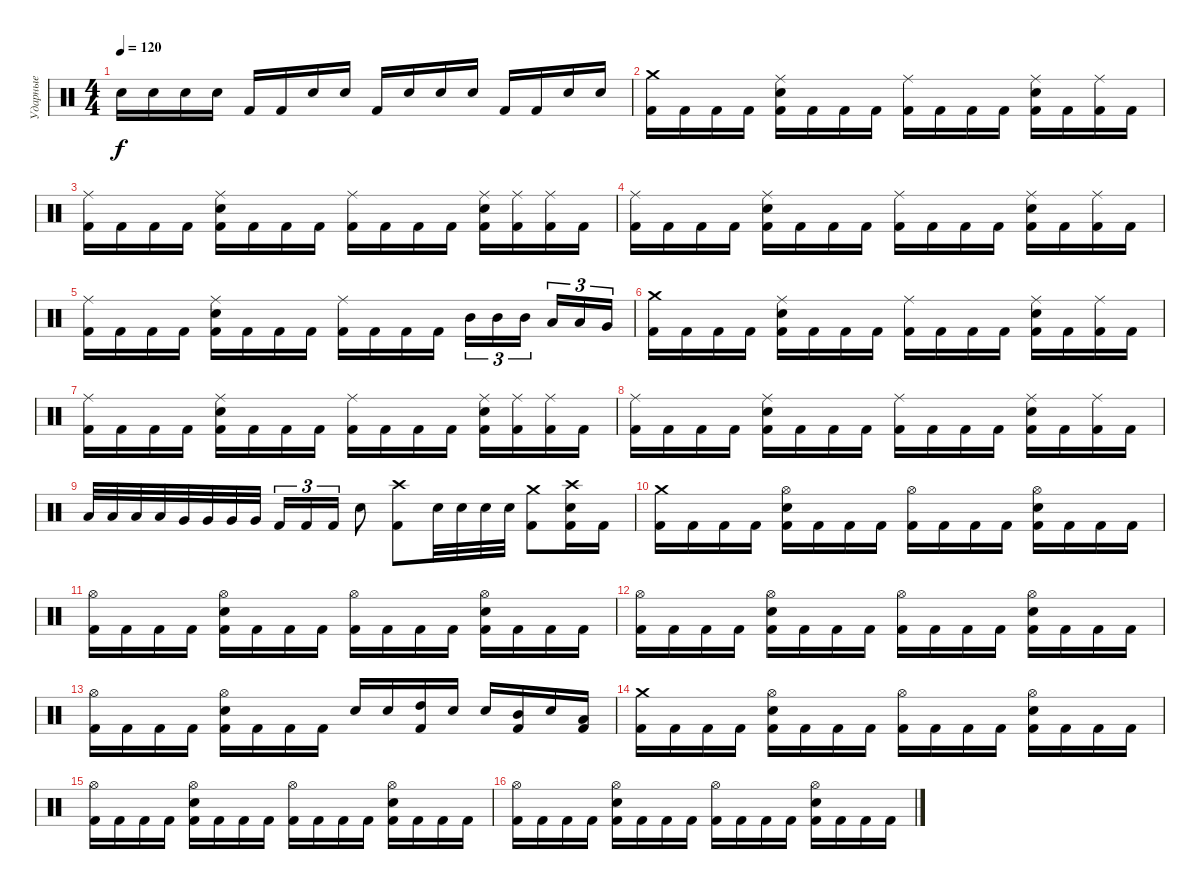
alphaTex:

\track ("Ударные" "Ударные") {instrument percussion}
\staff {score}
\articulation defaults
\ts (4 4)
\tempo 120
\clef neutral
\ks c "Electric Snare (hit)".16{dy f} "Electric Snare (hit)".16 "Electric Snare (hit)".16 "Electric Snare (hit)".16 "Kick (hit) 2".16 "Kick (hit) 2".16 "Electric Snare (hit)".16 "Electric Snare (hit)".16 "Kick (hit) 2".16 "Electric Snare (hit)".16 "Electric Snare (hit)".16 "Electric Snare (hit)".16 "Kick (hit) 2".16 "Kick (hit) 2".16 "Electric Snare (hit)".16 "Electric Snare (hit)".16
|
("Crash medium (hit)" "Kick (hit) 2").16 "Kick (hit) 2".16 "Kick (hit) 2".16 "Kick (hit) 2".16 ("Ride (middle)" "Electric Snare (hit)" "Kick (hit) 2").16 "Kick (hit) 2".16 "Kick (hit) 2".16 "Kick (hit) 2".16 ("Ride (middle)" "Kick (hit) 2").16 "Kick (hit) 2".16 "Kick (hit) 2".16 "Kick (hit) 2".16 ("Ride (middle)" "Electric Snare (hit)" "Kick (hit) 2").16 "Kick (hit) 2".16 ("Ride (middle)" "Kick (hit) 2").16 "Kick (hit) 2".16 |
("Ride (middle)" "Kick (hit) 2").16 "Kick (hit) 2".16 "Kick (hit) 2".16 "Kick (hit) 2".16 ("Ride (middle)" "Electric Snare (hit)" "Kick (hit) 2").16 "Kick (hit) 2".16 "Kick (hit) 2".16 "Kick (hit) 2".16 ("Ride (middle)" "Kick (hit) 2").16 "Kick (hit) 2".16 "Kick (hit) 2".16 "Kick (hit) 2".16 ("Ride (middle)" "Electric Snare (hit)" "Kick (hit) 2").16 ("Ride (middle)" "Kick (hit) 2").16 ("Ride (middle)" "Kick (hit) 2").16 "Kick (hit) 2".16 |
("Ride (middle)" "Kick (hit) 2").16 "Kick (hit) 2".16 "Kick (hit) 2".16 "Kick (hit) 2".16 ("Ride (middle)" "Electric Snare (hit)" "Kick (hit) 2").16 "Kick (hit) 2".16 "Kick (hit) 2".16 "Kick (hit) 2".16 ("Ride (middle)" "Kick (hit) 2").16 "Kick (hit) 2".16 "Kick (hit) 2".16 "Kick (hit) 2".16 ("Ride (middle)" "Electric Snare (hit)" "Kick (hit) 2").16 "Kick (hit) 2".16 ("Ride (middle)" "Kick (hit) 2").16 "Kick (hit) 2".16 |
("Ride (middle)" "Kick (hit) 2").16 "Kick (hit) 2".16 "Kick (hit) 2".16 "Kick (hit) 2".16 ("Ride (middle)" "Electric Snare (hit)" "Kick (hit) 2").16 "Kick (hit) 2".16 "Kick (hit) 2".16 "Kick (hit) 2".16 ("Ride (middle)" "Kick (hit) 2").16 "Kick (hit) 2".16 "Kick (hit) 2".16 "Kick (hit) 2".16 "Mid Tom (hit)".16{tu (3 2)} "Mid Tom (hit)".16{tu (3 2)} "Mid Tom (hit)".16{tu (3 2) beam splitsecondary} "Low Tom (hit)".16{tu (3 2)} "Low Tom (hit)".16{tu (3 2)} "Very Low Tom (hit)".16{tu (3 2)} |
("Crash medium (hit)" "Kick (hit) 2").16 "Kick (hit) 2".16 "Kick (hit) 2".16 "Kick (hit) 2".16 ("Ride (middle)" "Electric Snare (hit)" "Kick (hit) 2").16 "Kick (hit) 2".16 "Kick (hit) 2".16 "Kick (hit) 2".16 ("Ride (middle)" "Kick (hit) 2").16 "Kick (hit) 2".16 "Kick (hit) 2".16 "Kick (hit) 2".16 ("Ride (middle)" "Electric Snare (hit)" "Kick (hit) 2").16 "Kick (hit) 2".16 ("Ride (middle)" "Kick (hit) 2").16 "Kick (hit) 2".16 |
("Ride (middle)" "Kick (hit) 2").16 "Kick (hit) 2".16 "Kick (hit) 2".16 "Kick (hit) 2".16 ("Ride (middle)" "Electric Snare (hit)" "Kick (hit) 2").16 "Kick (hit) 2".16 "Kick (hit) 2".16 "Kick (hit) 2".16 ("Ride (middle)" "Kick (hit) 2").16 "Kick (hit) 2".16 "Kick (hit) 2".16 "Kick (hit) 2".16 ("Ride (middle)" "Electric Snare (hit)" "Kick (hit) 2").16 ("Ride (middle)" "Kick (hit) 2").16 ("Ride (middle)" "Kick (hit) 2").16 "Kick (hit) 2".16 |
("Ride (middle)" "Kick (hit) 2").16 "Kick (hit) 2".16 "Kick (hit) 2".16 "Kick (hit) 2".16 ("Ride (middle)" "Electric Snare (hit)" "Kick (hit) 2").16 "Kick (hit) 2".16 "Kick (hit) 2".16 "Kick (hit) 2".16 ("Ride (middle)" "Kick (hit) 2").16 "Kick (hit) 2".16 "Kick (hit) 2".16 "Kick (hit) 2".16 ("Ride (middle)" "Electric Snare (hit)" "Kick (hit) 2").16 "Kick (hit) 2".16 ("Ride (middle)" "Kick (hit) 2").16 "Kick (hit) 2".16 |
"Low Tom (hit)".32 "Low Tom (hit)".32 "Low Tom (hit)".32 "Low Tom (hit)".32 "Very Low Tom (hit)".32 "Very Low Tom (hit)".32 "Very Low Tom (hit)".32 "Very Low Tom (hit)".32 "Kick (hit) 2".16{tu (3 2)} "Kick (hit) 2".16{tu (3 2)} "Kick (hit) 2".16{tu (3 2)} "Electric Snare (hit)".8 ("Kick (hit) 2" "Crash high (hit)").8 "Electric Snare (hit)".32 "Electric Snare (hit)".32 "Electric Snare (hit)".32 "Electric Snare (hit)".32 ("Kick (hit) 2" "Crash medium (hit)").8 ("Kick (hit) 2" "Electric Snare (hit)" "Crash high (hit)").16 "Kick (hit) 2".16 |
("Crash medium (hit)" "Kick (hit) 2").16 "Kick (hit) 2".16 "Kick (hit) 2".16 "Kick (hit) 2".16 ("Hi-Hat (open)" "Electric Snare (hit)" "Kick (hit) 2").16 "Kick (hit) 2".16 "Kick (hit) 2".16 "Kick (hit) 2".16 ("Hi-Hat (open)" "Kick (hit) 2").16 "Kick (hit) 2".16 "Kick (hit) 2".16 "Kick (hit) 2".16 ("Hi-Hat (open)" "Electric Snare (hit)" "Kick (hit) 2").16 "Kick (hit) 2".16 "Kick (hit) 2".16 "Kick (hit) 2".16 |
("Hi-Hat (open)" "Kick (hit) 2").16 "Kick (hit) 2".16 "Kick (hit) 2".16 "Kick (hit) 2".16 ("Hi-Hat (open)" "Electric Snare (hit)" "Kick (hit) 2").16 "Kick (hit) 2".16 "Kick (hit) 2".16 "Kick (hit) 2".16 ("Hi-Hat (open)" "Kick (hit) 2").16 "Kick (hit) 2".16 "Kick (hit) 2".16 "Kick (hit) 2".16 ("Hi-Hat (open)" "Electric Snare (hit)" "Kick (hit) 2").16 "Kick (hit) 2".16 "Kick (hit) 2".16 "Kick (hit) 2".16 |
("Hi-Hat (open)" "Kick (hit) 2").16 "Kick (hit) 2".16 "Kick (hit) 2".16 "Kick (hit) 2".16 ("Hi-Hat (open)" "Electric Snare (hit)" "Kick (hit) 2").16 "Kick (hit) 2".16 "Kick (hit) 2".16 "Kick (hit) 2".16 ("Hi-Hat (open)" "Kick (hit) 2").16 "Kick (hit) 2".16 "Kick (hit) 2".16 "Kick (hit) 2".16 ("Hi-Hat (open)" "Electric Snare (hit)" "Kick (hit) 2").16 "Kick (hit) 2".16 "Kick (hit) 2".16 "Kick (hit) 2".16 |
("Hi-Hat (open)" "Kick (hit) 2").16 "Kick (hit) 2".16 "Kick (hit) 2".16 "Kick (hit) 2".16 ("Hi-Hat (open)" "Electric Snare (hit)" "Kick (hit) 2").16 "Kick (hit) 2".16 "Kick (hit) 2".16 "Kick (hit) 2".16 "Electric Snare (hit)".16 "Electric Snare (hit)".16 ("High Tom (hit)" "Kick (hit) 2").16 "Electric Snare (hit)".16 "Electric Snare (hit)".16 ("Mid Tom (hit)" "Kick (hit) 2").16 "Electric Snare (hit)".16 ("Low Tom (hit)" "Kick (hit) 2").16 |
("Crash medium (hit)" "Kick (hit) 2").16 "Kick (hit) 2".16 "Kick (hit) 2".16 "Kick (hit) 2".16 ("Hi-Hat (open)" "Electric Snare (hit)" "Kick (hit) 2").16 "Kick (hit) 2".16 "Kick (hit) 2".16 "Kick (hit) 2".16 ("Hi-Hat (open)" "Kick (hit) 2").16 "Kick (hit) 2".16 "Kick (hit) 2".16 "Kick (hit) 2".16 ("Hi-Hat (open)" "Electric Snare (hit)" "Kick (hit) 2").16 "Kick (hit) 2".16 "Kick (hit) 2".16 "Kick (hit) 2".16 |
("Hi-Hat (open)" "Kick (hit) 2").16 "Kick (hit) 2".16 "Kick (hit) 2".16 "Kick (hit) 2".16 ("Hi-Hat (open)" "Electric Snare (hit)" "Kick (hit) 2").16 "Kick (hit) 2".16 "Kick (hit) 2".16 "Kick (hit) 2".16 ("Hi-Hat (open)" "Kick (hit) 2").16 "Kick (hit) 2".16 "Kick (hit) 2".16 "Kick (hit) 2".16 ("Hi-Hat (open)" "Electric Snare (hit)" "Kick (hit) 2").16 "Kick (hit) 2".16 "Kick (hit) 2".16 "Kick (hit) 2".16 |
("Hi-Hat (open)" "Kick (hit) 2").16 "Kick (hit) 2".16 "Kick (hit) 2".16 "Kick (hit) 2".16 ("Hi-Hat (open)" "Electric Snare (hit)" "Kick (hit) 2").16 "Kick (hit) 2".16 "Kick (hit) 2".16 "Kick (hit) 2".16 ("Hi-Hat (open)" "Kick (hit) 2").16 "Kick (hit) 2".16 "Kick (hit) 2".16 "Kick (hit) 2".16 ("Hi-Hat (open)" "Electric Snare (hit)" "Kick (hit) 2").16 "Kick (hit) 2".16 "Kick (hit) 2".16 "Kick (hit) 2".16
